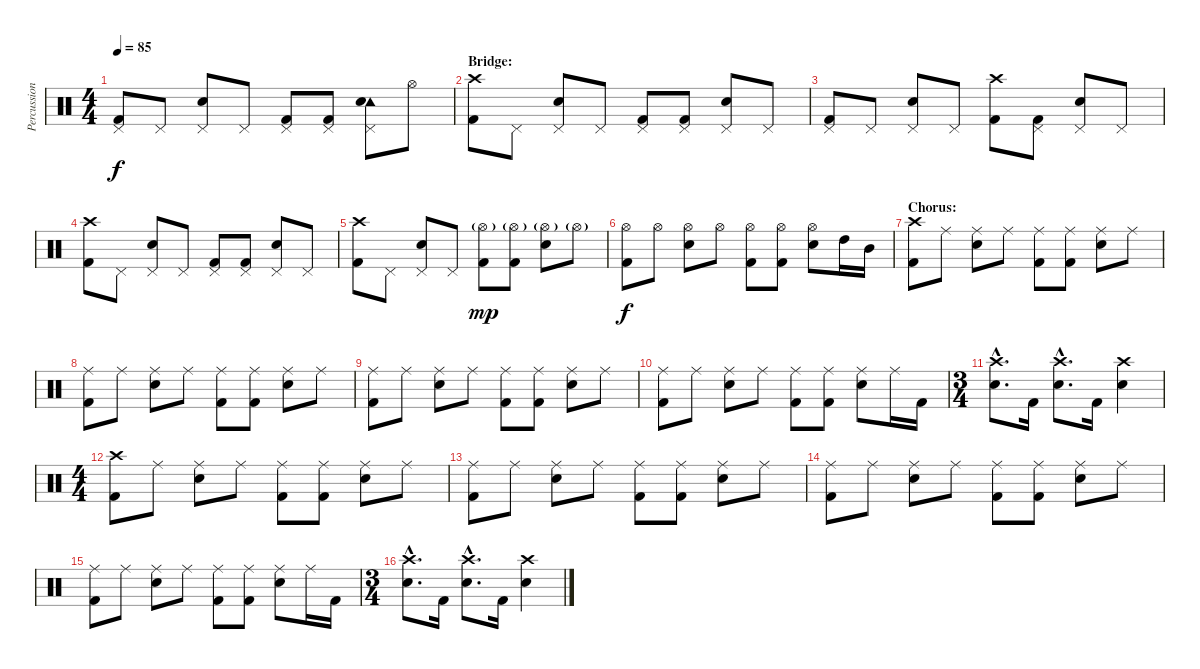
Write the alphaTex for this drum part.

\track ("Percussion" "Percussion") {instrument percussion}
\staff {score}
\articulation defaults
\ts (4 4)
\tempo 85
\clef neutral
\ks c
("Pedal Hi-Hat (hit)" "Kick (hit) 2").8{dy f} "Pedal Hi-Hat (hit)".8 ("Pedal Hi-Hat (hit)" "Electric Snare (hit)").8 "Pedal Hi-Hat (hit)".8 ("Pedal Hi-Hat (hit)" "Kick (hit) 2").8 ("Pedal Hi-Hat (hit)" "Kick (hit) 2").8 ("Pedal Hi-Hat (hit)" "Tambourine (hit)" "Electric Snare (hit)").8 "Hi-Hat (open)".8 |
\section ("" "Bridge:")
("Crash high (hit)" "Kick (hit) 2").8 "Pedal Hi-Hat (hit)".8 ("Pedal Hi-Hat (hit)" "Electric Snare (hit)").8 "Pedal Hi-Hat (hit)".8 ("Pedal Hi-Hat (hit)" "Kick (hit) 2").8 ("Pedal Hi-Hat (hit)" "Kick (hit) 2").8 ("Pedal Hi-Hat (hit)" "Electric Snare (hit)").8 "Pedal Hi-Hat (hit)".8 |
("Pedal Hi-Hat (hit)" "Kick (hit) 2").8 "Pedal Hi-Hat (hit)".8 ("Pedal Hi-Hat (hit)" "Electric Snare (hit)").8 "Pedal Hi-Hat (hit)".8 ("Crash high (hit)" "Kick (hit) 2").8 ("Pedal Hi-Hat (hit)" "Kick (hit) 2").8 ("Pedal Hi-Hat (hit)" "Electric Snare (hit)").8 "Pedal Hi-Hat (hit)".8 |
("Crash high (hit)" "Kick (hit) 2").8 "Pedal Hi-Hat (hit)".8 ("Pedal Hi-Hat (hit)" "Electric Snare (hit)").8 "Pedal Hi-Hat (hit)".8 ("Pedal Hi-Hat (hit)" "Kick (hit) 2").8 ("Pedal Hi-Hat (hit)" "Kick (hit) 2").8 ("Pedal Hi-Hat (hit)" "Electric Snare (hit)").8 "Pedal Hi-Hat (hit)".8 |
("Crash high (hit)" "Kick (hit) 2").8 "Pedal Hi-Hat (hit)".8 ("Pedal Hi-Hat (hit)" "Electric Snare (hit)").8 "Pedal Hi-Hat (hit)".8 ("Hi-Hat (open)"{g} "Kick (hit) 2").8{dy mp} ("Hi-Hat (open)"{g} "Kick (hit) 2").8 ("Hi-Hat (open)"{g} "Electric Snare (hit)").8 "Hi-Hat (open)"{g}.8 |
("Hi-Hat (open)" "Kick (hit) 2").8{dy f} "Hi-Hat (open)".8 ("Hi-Hat (open)" "Electric Snare (hit)").8 "Hi-Hat (open)".8 ("Hi-Hat (open)" "Kick (hit) 2").8 ("Hi-Hat (open)" "Kick (hit) 2").8 ("Hi-Hat (open)" "Electric Snare (hit)").8 "High Tom (hit)".16 "Mid Tom (hit)".16 |
\section ("" "Chorus:")
("Crash high (hit)" "Kick (hit) 2").8 "Ride (middle)".8 ("Ride (middle)" "Electric Snare (hit)").8 "Ride (middle)".8 ("Ride (middle)" "Kick (hit) 2").8 ("Ride (middle)" "Kick (hit) 2").8 ("Ride (middle)" "Electric Snare (hit)").8 "Ride (middle)".8 |
("Ride (middle)" "Kick (hit) 2").8 "Ride (middle)".8 ("Ride (middle)" "Electric Snare (hit)").8 "Ride (middle)".8 ("Ride (middle)" "Kick (hit) 2").8 ("Ride (middle)" "Kick (hit) 2").8 ("Ride (middle)" "Electric Snare (hit)").8 "Ride (middle)".8 |
("Ride (middle)" "Kick (hit) 2").8 "Ride (middle)".8 ("Ride (middle)" "Electric Snare (hit)").8 "Ride (middle)".8 ("Ride (middle)" "Kick (hit) 2").8 ("Ride (middle)" "Kick (hit) 2").8 ("Ride (middle)" "Electric Snare (hit)").8 "Ride (middle)".8 |
("Ride (middle)" "Kick (hit) 2").8 "Ride (middle)".8 ("Ride (middle)" "Electric Snare (hit)").8 "Ride (middle)".8 ("Ride (middle)" "Kick (hit) 2").8 ("Ride (middle)" "Kick (hit) 2").8 ("Ride (middle)" "Electric Snare (hit)").8 "Ride (middle)".16 "Kick (hit) 2".16 |
\ts (3 4)
("Crash high (hit)"{hac} "Electric Snare (hit)"{hac}).8{d} "Kick (hit) 2".16 ("Crash high (hit)"{hac} "Electric Snare (hit)"{hac}).8{d} "Kick (hit) 2".16 ("Crash high (hit)" "Electric Snare (hit)").4 |
\ts (4 4)
("Crash high (hit)" "Kick (hit) 2").8 "Ride (middle)".8 ("Ride (middle)" "Electric Snare (hit)").8 "Ride (middle)".8 ("Ride (middle)" "Kick (hit) 2").8 ("Ride (middle)" "Kick (hit) 2").8 ("Ride (middle)" "Electric Snare (hit)").8 "Ride (middle)".8 |
("Ride (middle)" "Kick (hit) 2").8 "Ride (middle)".8 ("Ride (middle)" "Electric Snare (hit)").8 "Ride (middle)".8 ("Ride (middle)" "Kick (hit) 2").8 ("Ride (middle)" "Kick (hit) 2").8 ("Ride (middle)" "Electric Snare (hit)").8 "Ride (middle)".8 |
("Ride (middle)" "Kick (hit) 2").8 "Ride (middle)".8 ("Ride (middle)" "Electric Snare (hit)").8 "Ride (middle)".8 ("Ride (middle)" "Kick (hit) 2").8 ("Ride (middle)" "Kick (hit) 2").8 ("Ride (middle)" "Electric Snare (hit)").8 "Ride (middle)".8 |
("Ride (middle)" "Kick (hit) 2").8 "Ride (middle)".8 ("Ride (middle)" "Electric Snare (hit)").8 "Ride (middle)".8 ("Ride (middle)" "Kick (hit) 2").8 ("Ride (middle)" "Kick (hit) 2").8 ("Ride (middle)" "Electric Snare (hit)").8 "Ride (middle)".16 "Kick (hit) 2".16 |
\ts (3 4)
("Crash high (hit)"{hac} "Electric Snare (hit)"{hac}).8{d} "Kick (hit) 2".16 ("Crash high (hit)"{hac} "Electric Snare (hit)"{hac}).8{d} "Kick (hit) 2".16 ("Crash high (hit)" "Electric Snare (hit)").4
